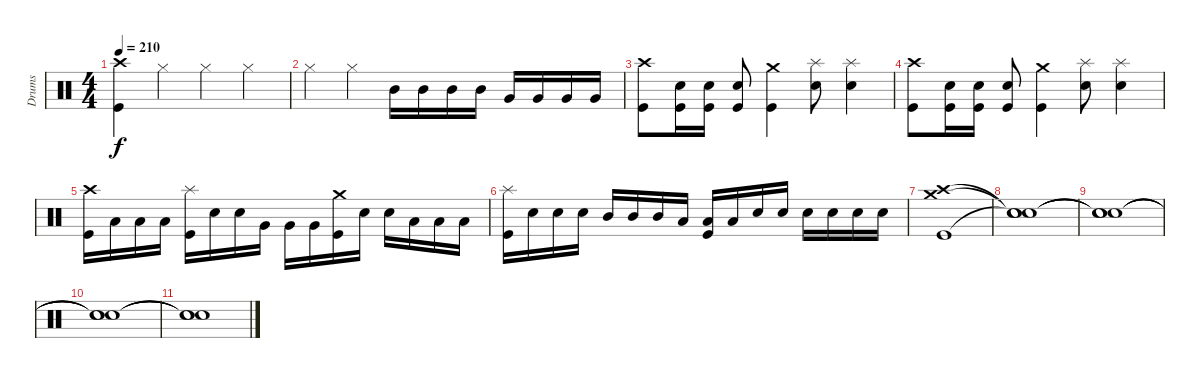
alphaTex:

\track ("Drums" "Drums") {instrument percussion}
\staff {score}
\articulation defaults
\ts (4 4)
\tempo 210
\clef neutral
\ks c
("Crash high (hit)" "Kick (hit)").4{dy f} "Hi-Hat (closed)".4 "Hi-Hat (closed)".4 "Hi-Hat (closed)".4 |
"Hi-Hat (closed)".4 "Hi-Hat (closed)".4 "Mid Tom (hit)".16 "Mid Tom (hit)".16 "Mid Tom (hit)".16 "Mid Tom (hit)".16 "Very Low Tom (hit)".16 "Very Low Tom (hit)".16 "Very Low Tom (hit)".16 "Very Low Tom (hit)".16 |
("Crash high (hit)" "Kick (hit)").8 ("Snare (hit) 2" "Kick (hit)").16 ("Snare (hit) 2" "Kick (hit)").16 ("Snare (hit) 2" "Kick (hit)").8 ("Crash medium (hit)" "Kick (hit)").4 ("Splash (hit)" "Electric Snare (hit)").8 ("Splash (hit)" "Electric Snare (hit)").4 |
("Crash high (hit)" "Kick (hit)").8 ("Snare (hit) 2" "Kick (hit)").16 ("Snare (hit) 2" "Kick (hit)").16 ("Snare (hit) 2" "Kick (hit)").8 ("Crash medium (hit)" "Kick (hit)").4 ("Splash (hit)" "Electric Snare (hit)").8 ("Splash (hit)" "Electric Snare (hit)").4 |
("Crash high (hit)" "Kick (hit)").16 "Low Tom (hit)".16 "Low Tom (hit)".16 "Low Tom (hit)".16 ("Splash (hit)" "Kick (hit)").16 "Snare (hit) 2".16 "Snare (hit) 2".16 "Very Low Tom (hit)".16 "Very Low Tom (hit)".16 "Very Low Tom (hit)".16 ("Crash medium (hit)" "Kick (hit)").16 "Snare (hit) 2".16 "Snare (hit) 2".16 "Low Tom (hit)".16 "Low Tom (hit)".16 "Low Tom (hit)".16 |
("Splash (hit)" "Kick (hit)").16 "Snare (hit) 2".16 "Snare (hit) 2".16 "Snare (hit) 2".16 "Mid Tom (hit)".16 "Mid Tom (hit)".16 "Mid Tom (hit)".16 "Low Tom (hit)".16 ("Low Tom (hit)" "Kick (hit)").16 "Low Tom (hit)".16 "Snare (hit) 2".16 "Snare (hit) 2".16 "Snare (hit) 2".16 "Snare (hit) 2".16 "Snare (hit) 2".16 "Snare (hit) 2".16 |
("Crash medium (hit)" "Crash high (hit)" "Kick (hit)").1 |
("Snare (hit)"{t} "Snare (hit)"{t} "Snare (hit)"{t}).1 |
("Snare (hit)"{t} "Snare (hit)"{t} "Snare (hit)"{t}).1 |
("Snare (hit)"{t} "Snare (hit)"{t} "Snare (hit)"{t}).1 |
("Snare (hit)"{t} "Snare (hit)"{t} "Snare (hit)"{t}).1
